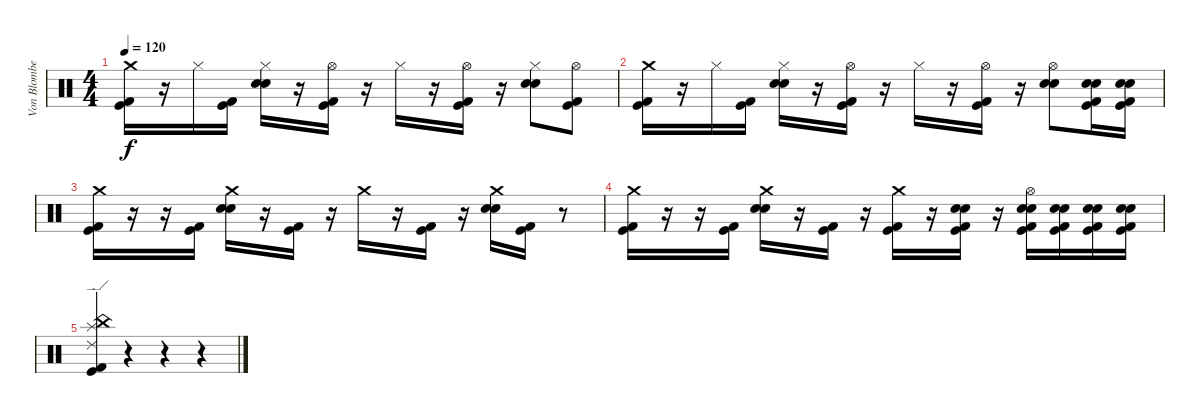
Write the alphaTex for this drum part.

\track ("Von Blomberg" "Von Blombe") {instrument percussion}
\staff {score}
\articulation defaults
\ts (4 4)
\tempo 120
\clef neutral
\ks c
("Crash medium (hit)" "Kick (hit) 2" "Kick (hit)").16{dy f} r.16 "Hi-Hat (closed)".16 ("Kick (hit)" "Kick (hit) 2").16 ("Hi-Hat (closed)" "Electric Snare (hit)" "Snare (hit) 2").16 r.16 ("Hi-Hat (open)" "Kick (hit)" "Kick (hit) 2").16 r.16 "Hi-Hat (closed)".16 r.16 ("Hi-Hat (open)" "Kick (hit)" "Kick (hit) 2").16 r.16 ("Hi-Hat (closed)" "Snare (hit) 2" "Electric Snare (hit)").8 ("Hi-Hat (open)" "Kick (hit) 2" "Kick (hit)").8 |
("Crash medium (hit)" "Kick (hit) 2" "Kick (hit)").16 r.16 "Hi-Hat (closed)".16 ("Kick (hit)" "Kick (hit) 2").16 ("Hi-Hat (closed)" "Electric Snare (hit)" "Snare (hit) 2").16 r.16 ("Hi-Hat (open)" "Kick (hit)" "Kick (hit) 2").16 r.16 "Hi-Hat (closed)".16 r.16 ("Hi-Hat (open)" "Kick (hit)" "Kick (hit) 2").16 r.16 ("Hi-Hat (open)" "Snare (hit) 2" "Electric Snare (hit)").8 ("Electric Snare (hit)" "Snare (hit) 2" "Kick (hit) 2" "Kick (hit)").16 ("Electric Snare (hit)" "Snare (hit) 2" "Kick (hit)" "Kick (hit) 2").16 |
("Crash medium (hit)" "Kick (hit) 2" "Kick (hit)").16 r.16 r.16 ("Kick (hit)" "Kick (hit) 2").16 ("Crash medium (hit)" "Electric Snare (hit)" "Snare (hit) 2").16 r.16 ("Kick (hit)" "Kick (hit) 2").16 r.16 "Crash medium (hit)".16 r.16 ("Kick (hit)" "Kick (hit) 2").16 r.16 ("Crash medium (hit)" "Snare (hit) 2" "Electric Snare (hit)").16 ("Kick (hit)" "Kick (hit) 2").16 r.8 |
("Crash medium (hit)" "Kick (hit) 2" "Kick (hit)").16 r.16 r.16 ("Kick (hit)" "Kick (hit) 2").16 ("Crash medium (hit)" "Electric Snare (hit)" "Snare (hit) 2").16 r.16 ("Kick (hit)" "Kick (hit) 2").16 r.16 ("Crash medium (hit)" "Kick (hit)" "Kick (hit) 2").16 r.16 ("Snare (hit) 2" "Electric Snare (hit)" "Kick (hit)" "Kick (hit) 2").16 r.16 ("Kick (hit)" "Hi-Hat (open)" "Electric Snare (hit)" "Snare (hit) 2" "Kick (hit) 2").16 ("Snare (hit) 2" "Electric Snare (hit)" "Kick (hit)" "Kick (hit) 2").16 ("Snare (hit) 2" "Electric Snare (hit)" "Kick (hit)" "Kick (hit) 2").16 ("Snare (hit) 2" "Electric Snare (hit)" "Kick (hit)" "Kick (hit) 2").16 |
("China (hit)" "Splash (hit)" "Ride (edge) 2" "Kick (hit)" "Kick (hit) 2").4 r.4 r.4 r.4
